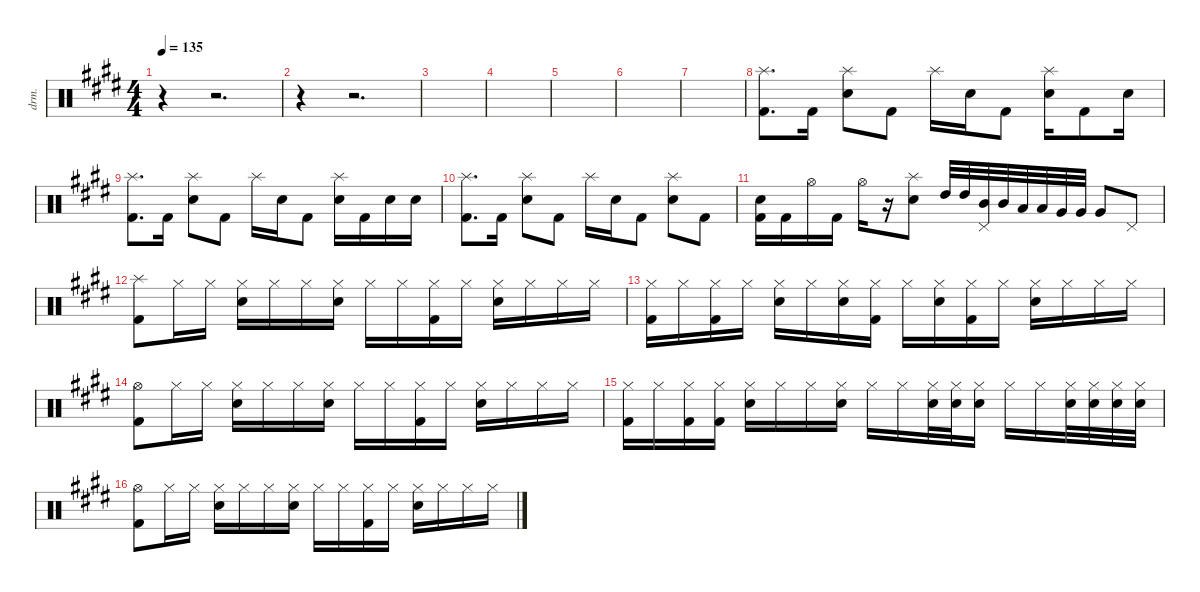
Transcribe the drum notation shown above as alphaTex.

\defaultSystemsLayout 4
\hideDynamics
\bracketExtendMode nobrackets
\track ("Drumkit" "drm.") {instrument percussion}
\staff {score}
\articulation defaults
\ts (4 4)
\tempo 135
\clef neutral
\ks e
r.4{dy mf} r.2{d} |
r.4 r.2{d} |
|
|
|
|
|
("Splash (hit)"{acc forcenatural} "Kick (hit) 2"{acc forcenatural}).8{d} "Kick (hit) 2"{acc forcenatural}.16 ("Snare (hit) 2"{acc forcenatural} "Splash (hit)"{acc forcenatural}).8 "Kick (hit) 2"{acc forcenatural}.8 "Splash (hit)"{acc forcenatural}.16 "Snare (hit) 2"{acc forcenatural}.16 "Kick (hit) 2"{acc forcenatural}.8 ("Splash (hit)"{acc forcenatural} "Snare (hit) 2"{acc forcenatural}).16 "Kick (hit) 2"{acc forcenatural}.8 "Snare (hit) 2"{acc forcenatural}.16 |
("Splash (hit)"{acc forcenatural} "Kick (hit) 2"{acc forcenatural}).8{d} "Kick (hit) 2"{acc forcenatural}.16 ("Snare (hit) 2"{acc forcenatural} "Splash (hit)"{acc forcenatural}).8 "Kick (hit) 2"{acc forcenatural}.8 "Splash (hit)"{acc forcenatural}.16 "Snare (hit) 2"{acc forcenatural}.16 "Kick (hit) 2"{acc forcenatural}.8 ("Splash (hit)"{acc forcenatural} "Snare (hit) 2"{acc forcenatural}).16 "Kick (hit) 2"{acc forcenatural}.16 "Snare (hit) 2"{acc forcenatural}.16 "Snare (hit) 2"{acc forcenatural}.16 |
("Splash (hit)"{acc forcenatural} "Kick (hit) 2"{acc forcenatural}).8{d} "Kick (hit) 2"{acc forcenatural}.16 ("Snare (hit) 2"{acc forcenatural} "Splash (hit)"{acc forcenatural}).8 "Kick (hit) 2"{acc forcenatural}.8 "Splash (hit)"{acc forcenatural}.16 "Snare (hit) 2"{acc forcenatural}.16 "Kick (hit) 2"{acc forcenatural}.8 ("Splash (hit)"{acc forcenatural} "Snare (hit) 2"{acc forcenatural}).8 "Kick (hit) 2"{acc forcenatural}.8 |
("Kick (hit) 2"{acc forcenatural} "Snare (hit) 2"{acc forcenatural}).16 "Kick (hit) 2"{acc forcenatural}.16 "Hi-Hat (open)"{acc forcenatural}.16 "Kick (hit) 2"{acc forcenatural}.16 "Hi-Hat (open)"{acc forcenatural}.16 r.16 ("Splash (hit)"{acc forcenatural} "Snare (hit) 2"{acc forcenatural}).8 "High Tom (hit)"{acc forcenatural}.32 "High Tom (hit)"{acc forcenatural}.32 ("Mid Tom (hit)"{acc forcenatural} "Pedal Hi-Hat (hit)"{acc forcenatural}).32 "Mid Tom (hit)"{acc forcenatural}.32 "Low Tom (hit)"{acc forcenatural}.32 "Low Tom (hit)"{acc forcenatural}.32 "Very Low Tom (hit)"{acc forcenatural}.32 "Very Low Tom (hit)"{acc forcenatural}.32 "Very Low Tom (hit)"{acc forcenatural}.8 "Pedal Hi-Hat (hit)"{acc forcenatural}.8 |
("Kick (hit) 2"{acc forcenatural} "Splash (hit)"{acc forcenatural}).8 "Hi-Hat (closed)"{acc forcenatural}.16 "Hi-Hat (closed)"{acc forcenatural}.16 ("Hi-Hat (closed)"{acc forcenatural} "Snare (hit) 2"{acc forcenatural}).16 "Hi-Hat (closed)"{acc forcenatural}.16 "Hi-Hat (closed)"{acc forcenatural}.16 ("Hi-Hat (closed)"{acc forcenatural} "Snare (hit) 2"{acc forcenatural}).16 "Hi-Hat (closed)"{acc forcenatural}.16 "Hi-Hat (closed)"{acc forcenatural}.16 ("Hi-Hat (closed)"{acc forcenatural} "Kick (hit) 2"{acc forcenatural}).16 "Hi-Hat (closed)"{acc forcenatural}.16 ("Hi-Hat (closed)"{acc forcenatural} "Snare (hit) 2"{acc forcenatural}).16 "Hi-Hat (closed)"{acc forcenatural}.16 "Hi-Hat (closed)"{acc forcenatural}.16 "Hi-Hat (closed)"{acc forcenatural}.16 |
("Kick (hit) 2"{acc forcenatural} "Hi-Hat (closed)"{acc forcenatural}).16 "Hi-Hat (closed)"{acc forcenatural}.16 ("Hi-Hat (closed)"{acc forcenatural} "Kick (hit) 2"{acc forcenatural}).16 "Hi-Hat (closed)"{acc forcenatural}.16 ("Hi-Hat (closed)"{acc forcenatural} "Snare (hit) 2"{acc forcenatural}).16 "Hi-Hat (closed)"{acc forcenatural}.16 ("Hi-Hat (closed)"{acc forcenatural} "Snare (hit) 2"{acc forcenatural}).16 ("Hi-Hat (closed)"{acc forcenatural} "Kick (hit) 2"{acc forcenatural}).16 "Hi-Hat (closed)"{acc forcenatural}.16 ("Hi-Hat (closed)"{acc forcenatural} "Snare (hit) 2"{acc forcenatural}).16 ("Hi-Hat (closed)"{acc forcenatural} "Kick (hit) 2"{acc forcenatural}).16 "Hi-Hat (closed)"{acc forcenatural}.16 ("Hi-Hat (closed)"{acc forcenatural} "Snare (hit) 2"{acc forcenatural}).16 "Hi-Hat (closed)"{acc forcenatural}.16 "Hi-Hat (closed)"{acc forcenatural}.16 "Hi-Hat (closed)"{acc forcenatural}.16 |
("Kick (hit) 2"{acc forcenatural} "Hi-Hat (open)"{acc forcenatural}).8 "Hi-Hat (closed)"{acc forcenatural}.16 "Hi-Hat (closed)"{acc forcenatural}.16 ("Hi-Hat (closed)"{acc forcenatural} "Snare (hit) 2"{acc forcenatural}).16 "Hi-Hat (closed)"{acc forcenatural}.16 "Hi-Hat (closed)"{acc forcenatural}.16 ("Hi-Hat (closed)"{acc forcenatural} "Snare (hit) 2"{acc forcenatural}).16 "Hi-Hat (closed)"{acc forcenatural}.16 "Hi-Hat (closed)"{acc forcenatural}.16 ("Hi-Hat (closed)"{acc forcenatural} "Kick (hit) 2"{acc forcenatural}).16 "Hi-Hat (closed)"{acc forcenatural}.16 ("Hi-Hat (closed)"{acc forcenatural} "Snare (hit) 2"{acc forcenatural}).16 "Hi-Hat (closed)"{acc forcenatural}.16 "Hi-Hat (closed)"{acc forcenatural}.16 "Hi-Hat (closed)"{acc forcenatural}.16 |
("Kick (hit) 2"{acc forcenatural} "Hi-Hat (closed)"{acc forcenatural}).16 "Hi-Hat (closed)"{acc forcenatural}.16 ("Hi-Hat (closed)"{acc forcenatural} "Kick (hit) 2"{acc forcenatural}).16 ("Hi-Hat (closed)"{acc forcenatural} "Kick (hit) 2"{acc forcenatural}).16 ("Hi-Hat (closed)"{acc forcenatural} "Snare (hit) 2"{acc forcenatural}).16 "Hi-Hat (closed)"{acc forcenatural}.16 "Hi-Hat (closed)"{acc forcenatural}.16 ("Hi-Hat (closed)"{acc forcenatural} "Snare (hit) 2"{acc forcenatural}).16 "Hi-Hat (closed)"{acc forcenatural}.16 "Hi-Hat (closed)"{acc forcenatural}.16 ("Hi-Hat (closed)"{acc forcenatural} "Snare (hit) 2"{acc forcenatural}).32 ("Hi-Hat (closed)"{acc forcenatural} "Snare (hit) 2"{acc forcenatural}).32 ("Hi-Hat (closed)"{acc forcenatural} "Snare (hit) 2"{acc forcenatural}).16 "Hi-Hat (closed)"{acc forcenatural}.16 "Hi-Hat (closed)"{acc forcenatural}.16 ("Hi-Hat (closed)"{acc forcenatural} "Snare (hit) 2"{acc forcenatural}).32 ("Hi-Hat (closed)"{acc forcenatural} "Snare (hit) 2"{acc forcenatural}).32 ("Hi-Hat (closed)"{acc forcenatural} "Snare (hit) 2"{acc forcenatural}).32 ("Hi-Hat (closed)"{acc forcenatural} "Snare (hit) 2"{acc forcenatural}).32 |
("Kick (hit) 2"{acc forcenatural} "Hi-Hat (open)"{acc forcenatural}).8 "Hi-Hat (closed)"{acc forcenatural}.16 "Hi-Hat (closed)"{acc forcenatural}.16 ("Hi-Hat (closed)"{acc forcenatural} "Snare (hit) 2"{acc forcenatural}).16 "Hi-Hat (closed)"{acc forcenatural}.16 "Hi-Hat (closed)"{acc forcenatural}.16 ("Hi-Hat (closed)"{acc forcenatural} "Snare (hit) 2"{acc forcenatural}).16 "Hi-Hat (closed)"{acc forcenatural}.16 "Hi-Hat (closed)"{acc forcenatural}.16 ("Hi-Hat (closed)"{acc forcenatural} "Kick (hit) 2"{acc forcenatural}).16 "Hi-Hat (closed)"{acc forcenatural}.16 ("Hi-Hat (closed)"{acc forcenatural} "Snare (hit) 2"{acc forcenatural}).16 "Hi-Hat (closed)"{acc forcenatural}.16 "Hi-Hat (closed)"{acc forcenatural}.16 "Hi-Hat (closed)"{acc forcenatural}.16
